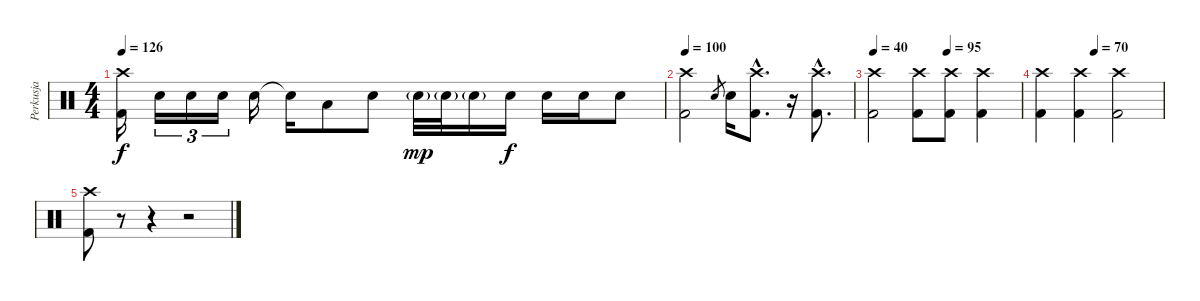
\track ("Perkusja" "Perkusja") {instrument percussion}
\staff {score}
\articulation defaults
\ts (4 4)
\tempo 126
\clef neutral
\ks c
("Crash high (hit)" "Kick (hit) 2").16{dy f volume 16} "Electric Snare (hit)".16{tu (3 2) volume 8} "Electric Snare (hit)".16{tu (3 2)} "Electric Snare (hit)".16{tu (3 2)} "Electric Snare (hit)".16{volume 16} "Snare (hit)"{t}.16 "Low Floor Tom (hit)".8 "Electric Snare (hit)".8 "Electric Snare (hit)"{g}.32{dy mp} "Electric Snare (hit)"{g}.32 "Electric Snare (hit)"{g}.16 "Electric Snare (hit)".16{dy f} "Electric Snare (hit)".16 "Electric Snare (hit)".16 "Electric Snare (hit)".8 |
\tempo 100
("Crash high (hit)" "Kick (hit) 2").2 "Electric Snare (hit)".8{gr} "Electric Snare (hit)".16 ("Crash high (hit)"{hac} "Kick (hit) 2"{hac}).8{d} r.16 ("Crash high (hit)"{hac} "Kick (hit) 2"{hac}).8{d} |
\tempo 40
\tempo (95 0.5)
("Crash high (hit)" "Kick (hit) 2").2 ("Crash high (hit)" "Kick (hit) 2").8 ("Crash high (hit)" "Kick (hit) 2").8 ("Crash high (hit)" "Kick (hit) 2").4 |
\tempo (70 0.4375)
("Crash high (hit)" "Kick (hit) 2").4 ("Crash high (hit)" "Kick (hit) 2").4 ("Crash high (hit)" "Kick (hit) 2").2 |
("Crash high (hit)" "Kick (hit) 2").8 r.8 r.4 r.2
